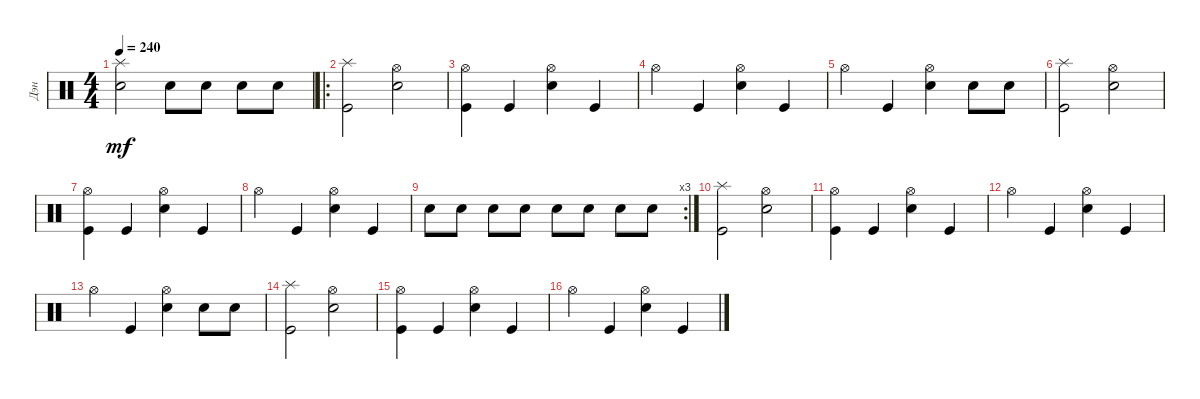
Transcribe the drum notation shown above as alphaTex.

\track ("Дэн" "Дэн") {instrument percussion}
\staff {score}
\articulation defaults
\ts (4 4)
\tempo 240
\clef neutral
\ks c
("Snare (hit) 2" "Splash (hit)").2{dy mf} "Snare (hit) 2".8 "Snare (hit) 2".8 "Snare (hit) 2".8 "Snare (hit) 2".8 |
\ro
("Kick (hit)" "Splash (hit)").2 ("Snare (hit) 2" "Hi-Hat (open)").2 |
("Kick (hit)" "Hi-Hat (open)").4 "Kick (hit)".4 ("Snare (hit) 2" "Hi-Hat (open)").4 "Kick (hit)".4 |
"Hi-Hat (open)".4 "Kick (hit)".4 ("Snare (hit) 2" "Hi-Hat (open)").4 "Kick (hit)".4 |
"Hi-Hat (open)".4 "Kick (hit)".4 ("Snare (hit) 2" "Hi-Hat (open)").4 "Snare (hit) 2".8 "Snare (hit) 2".8 |
("Kick (hit)" "Splash (hit)").2 ("Snare (hit) 2" "Hi-Hat (open)").2 |
("Kick (hit)" "Hi-Hat (open)").4 "Kick (hit)".4 ("Snare (hit) 2" "Hi-Hat (open)").4 "Kick (hit)".4 |
"Hi-Hat (open)".4 "Kick (hit)".4 ("Snare (hit) 2" "Hi-Hat (open)").4 "Kick (hit)".4 |
\rc 3 "Snare (hit) 2".8 "Snare (hit) 2".8 "Snare (hit) 2".8 "Snare (hit) 2".8 "Snare (hit) 2".8 "Snare (hit) 2".8 "Snare (hit) 2".8 "Snare (hit) 2".8
|
("Kick (hit)" "Splash (hit)").2 ("Snare (hit) 2" "Hi-Hat (open)").2 |
("Kick (hit)" "Hi-Hat (open)").4 "Kick (hit)".4 ("Snare (hit) 2" "Hi-Hat (open)").4 "Kick (hit)".4 |
"Hi-Hat (open)".4 "Kick (hit)".4 ("Snare (hit) 2" "Hi-Hat (open)").4 "Kick (hit)".4 |
"Hi-Hat (open)".4 "Kick (hit)".4 ("Snare (hit) 2" "Hi-Hat (open)").4 "Snare (hit) 2".8 "Snare (hit) 2".8 |
("Kick (hit)" "Splash (hit)").2 ("Snare (hit) 2" "Hi-Hat (open)").2 |
("Kick (hit)" "Hi-Hat (open)").4 "Kick (hit)".4 ("Snare (hit) 2" "Hi-Hat (open)").4 "Kick (hit)".4 |
"Hi-Hat (open)".4 "Kick (hit)".4 ("Snare (hit) 2" "Hi-Hat (open)").4 "Kick (hit)".4
